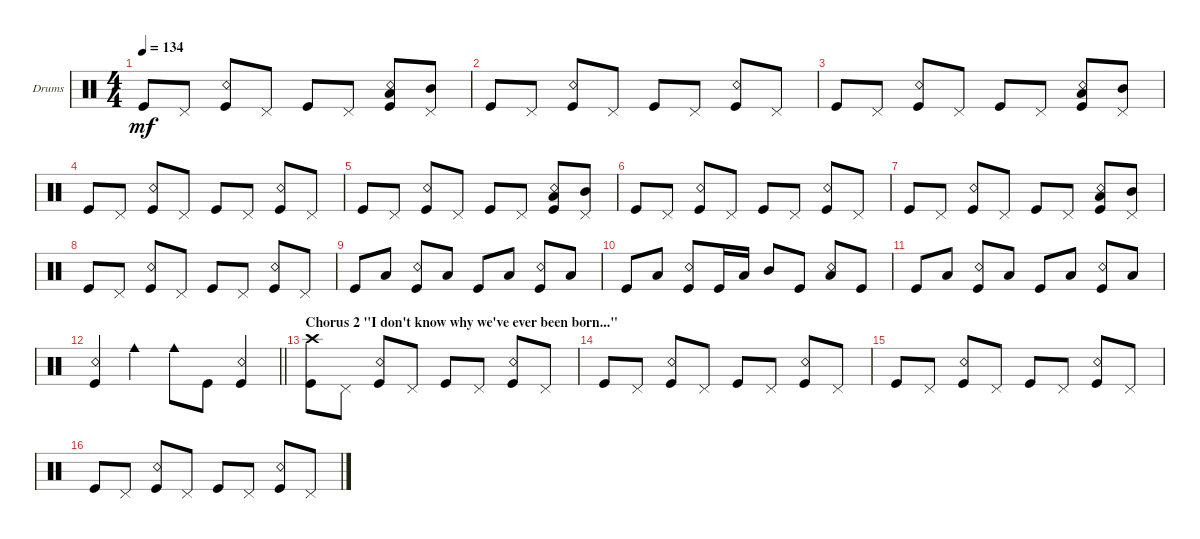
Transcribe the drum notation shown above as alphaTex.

\bracketExtendMode groupsimilarinstruments
\firstSystemTrackNameOrientation horizontal
\otherSystemsTrackNameOrientation horizontal
\track ("Nicky Bomba" "Drums") {instrument percussion}
\staff {score}
\articulation defaults
\ts (4 4)
\tempo 134
\clef neutral
\scale
0.333333
\ks c "Kick (hit)".8{dy mf} "Pedal Hi-Hat (hit)".8
("Kick (hit)" "Snare (rim shot)").8 "Pedal Hi-Hat (hit)".8 "Kick (hit)".8 "Pedal Hi-Hat (hit)".8 ("Kick (hit)" "Snare (rim shot)" "Low Tom (hit)").8 ("Pedal Hi-Hat (hit)" "Mid Tom (hit)").8 |
\scale
0.333333 "Kick (hit)".8 "Pedal Hi-Hat (hit)".8 ("Kick (hit)" "Snare (rim shot)").8 "Pedal Hi-Hat (hit)".8 "Kick (hit)".8 "Pedal Hi-Hat (hit)".8 ("Kick (hit)" "Snare (rim shot)").8 "Pedal Hi-Hat (hit)".8 |
\scale
0.333333 "Kick (hit)".8 "Pedal Hi-Hat (hit)".8 ("Kick (hit)" "Snare (rim shot)").8 "Pedal Hi-Hat (hit)".8 "Kick (hit)".8 "Pedal Hi-Hat (hit)".8 ("Kick (hit)" "Snare (rim shot)" "Low Tom (hit)").8 ("Pedal Hi-Hat (hit)" "Mid Tom (hit)").8 |
\scale
0.333333 "Kick (hit)".8 "Pedal Hi-Hat (hit)".8 ("Kick (hit)" "Snare (rim shot)").8 "Pedal Hi-Hat (hit)".8 "Kick (hit)".8 "Pedal Hi-Hat (hit)".8 ("Kick (hit)" "Snare (rim shot)").8 "Pedal Hi-Hat (hit)".8 |
\scale
0.333333 "Kick (hit)".8 "Pedal Hi-Hat (hit)".8 ("Kick (hit)" "Snare (rim shot)").8 "Pedal Hi-Hat (hit)".8 "Kick (hit)".8 "Pedal Hi-Hat (hit)".8 ("Kick (hit)" "Snare (rim shot)" "Low Tom (hit)").8 ("Pedal Hi-Hat (hit)" "Mid Tom (hit)").8 |
\scale
0.333333 "Kick (hit)".8 "Pedal Hi-Hat (hit)".8 ("Kick (hit)" "Snare (rim shot)").8 "Pedal Hi-Hat (hit)".8 "Kick (hit)".8 "Pedal Hi-Hat (hit)".8 ("Kick (hit)" "Snare (rim shot)").8 "Pedal Hi-Hat (hit)".8 |
\scale
0.333333 "Kick (hit)".8 "Pedal Hi-Hat (hit)".8 ("Kick (hit)" "Snare (rim shot)").8 "Pedal Hi-Hat (hit)".8 "Kick (hit)".8 "Pedal Hi-Hat (hit)".8 ("Kick (hit)" "Snare (rim shot)" "Low Tom (hit)").8 ("Pedal Hi-Hat (hit)" "Mid Tom (hit)").8 |
\scale
0.333333 "Kick (hit)".8 "Pedal Hi-Hat (hit)".8 ("Kick (hit)" "Snare (rim shot)").8 "Pedal Hi-Hat (hit)".8 "Kick (hit)".8 "Pedal Hi-Hat (hit)".8 ("Kick (hit)" "Snare (rim shot)").8 "Pedal Hi-Hat (hit)".8 |
\scale
0.333333 "Kick (hit)".8 "Low Tom (hit)".8 ("Kick (hit)" "Snare (rim shot)").8 "Low Tom (hit)".8 "Kick (hit)".8 "Low Tom (hit)".8 ("Kick (hit)" "Snare (rim shot)").8 "Low Tom (hit)".8 |
\scale
0.333333 "Kick (hit)".8 "Low Tom (hit)".8 ("Kick (hit)" "Snare (rim shot)").8 "Kick (hit)".16 "Low Tom (hit)".16 "Mid Tom (hit)".8 "Kick (hit)".8 ("Low Tom (hit)" "Snare (rim shot)").8 "Kick (hit)".8 |
\scale
0.333333 "Kick (hit)".8 "Low Tom (hit)".8 ("Kick (hit)" "Snare (rim shot)").8 "Low Tom (hit)".8 "Kick (hit)".8 "Low Tom (hit)".8 ("Kick (hit)" "Snare (rim shot)").8 "Low Tom (hit)".8 |
\scale
0.333333
\barLineRight lightlight
("Snare (rim shot)" "Kick (hit)").4 "Cowbell medium (hit)".4 "Cowbell medium (hit)".8 "Kick (hit)".8 ("Snare (rim shot)" "Kick (hit)").4 |
\section ("" "Chorus 2 \"I don't know why we've ever been born...\"")
\scale
0.333333 ("Kick (hit)" "Crash high (hit)").8 "Pedal Hi-Hat (hit)".8 ("Kick (hit)" "Snare (rim shot)").8 "Pedal Hi-Hat (hit)".8 "Kick (hit)".8 "Pedal Hi-Hat (hit)".8 ("Kick (hit)" "Snare (rim shot)").8 "Pedal Hi-Hat (hit)".8 |
\scale
0.333333 "Kick (hit)".8 "Pedal Hi-Hat (hit)".8 ("Kick (hit)" "Snare (rim shot)").8 "Pedal Hi-Hat (hit)".8 "Kick (hit)".8 "Pedal Hi-Hat (hit)".8 ("Kick (hit)" "Snare (rim shot)").8 "Pedal Hi-Hat (hit)".8 |
\scale
0.333333 "Kick (hit)".8 "Pedal Hi-Hat (hit)".8 ("Kick (hit)" "Snare (rim shot)").8 "Pedal Hi-Hat (hit)".8 "Kick (hit)".8 "Pedal Hi-Hat (hit)".8 ("Kick (hit)" "Snare (rim shot)").8 "Pedal Hi-Hat (hit)".8 |
\scale
0.333333 "Kick (hit)".8 "Pedal Hi-Hat (hit)".8 ("Kick (hit)" "Snare (rim shot)").8 "Pedal Hi-Hat (hit)".8 "Kick (hit)".8 "Pedal Hi-Hat (hit)".8 ("Kick (hit)" "Snare (rim shot)").8 "Pedal Hi-Hat (hit)".8
